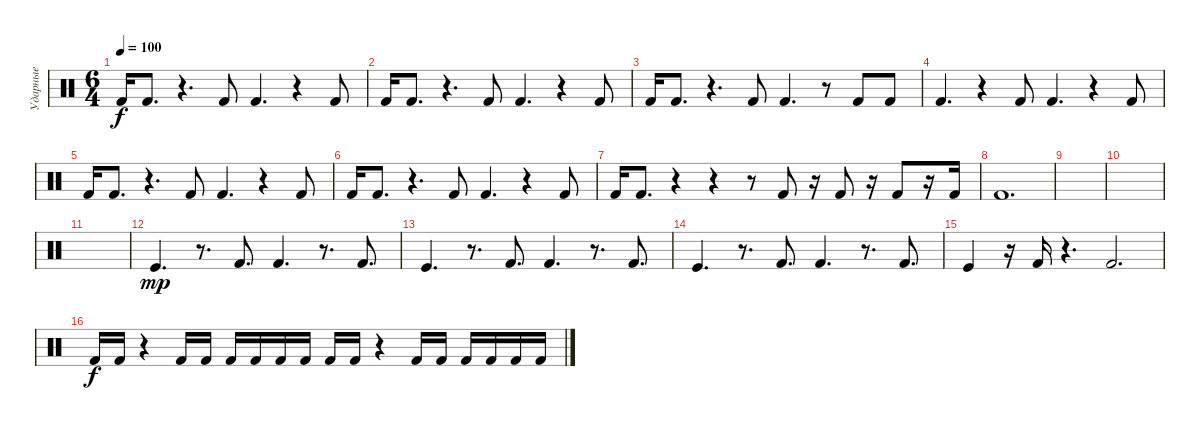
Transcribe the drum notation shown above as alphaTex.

\track ("Ударные" "Ударные") {instrument percussion}
\staff {score}
\articulation defaults
\ts (6 4)
\tempo 100
\clef neutral
\ks c "Kick (hit) 2".16{dy f} "Kick (hit) 2".8{d}
r.4{d} "Kick (hit) 2".8 "Kick (hit) 2".4{d} r.4 "Kick (hit) 2".8 |
"Kick (hit) 2".16 "Kick (hit) 2".8{d} r.4{d} "Kick (hit) 2".8 "Kick (hit) 2".4{d} r.4 "Kick (hit) 2".8 |
"Kick (hit) 2".16 "Kick (hit) 2".8{d} r.4{d} "Kick (hit) 2".8 "Kick (hit) 2".4{d} r.8 "Kick (hit) 2".8 "Kick (hit) 2".8 |
"Kick (hit) 2".4{d} r.4 "Kick (hit) 2".8 "Kick (hit) 2".4{d} r.4 "Kick (hit) 2".8 |
"Kick (hit) 2".16 "Kick (hit) 2".8{d} r.4{d} "Kick (hit) 2".8 "Kick (hit) 2".4{d} r.4 "Kick (hit) 2".8 |
"Kick (hit) 2".16 "Kick (hit) 2".8{d} r.4{d} "Kick (hit) 2".8 "Kick (hit) 2".4{d} r.4 "Kick (hit) 2".8 |
"Kick (hit) 2".16 "Kick (hit) 2".8{d} r.4 r.4 r.8 "Kick (hit) 2".8 r.16 "Kick (hit) 2".8 r.16 "Kick (hit) 2".8 r.16 "Kick (hit) 2".16 |
"Kick (hit) 2".1{d} |
|
|
|
"Kick (hit)".4{d dy mp} r.8{d} "Kick (hit) 2".8{d} "Kick (hit) 2".4{d} r.8{d} "Kick (hit) 2".8{d} |
"Kick (hit)".4{d} r.8{d} "Kick (hit) 2".8{d} "Kick (hit) 2".4{d} r.8{d} "Kick (hit) 2".8{d} |
"Kick (hit)".4{d} r.8{d} "Kick (hit) 2".8{d} "Kick (hit) 2".4{d} r.8{d} "Kick (hit) 2".8{d} |
"Kick (hit)".4 r.16 "Kick (hit) 2".16 r.4{d} "Kick (hit) 2".2{d} |
"Kick (hit) 2".16{dy f} "Kick (hit) 2".16 r.4 "Kick (hit) 2".16 "Kick (hit) 2".16 "Kick (hit) 2".16 "Kick (hit) 2".16 "Kick (hit) 2".16 "Kick (hit) 2".16 "Kick (hit) 2".16 "Kick (hit) 2".16 r.4 "Kick (hit) 2".16 "Kick (hit) 2".16 "Kick (hit) 2".16 "Kick (hit) 2".16 "Kick (hit) 2".16 "Kick (hit) 2".16
